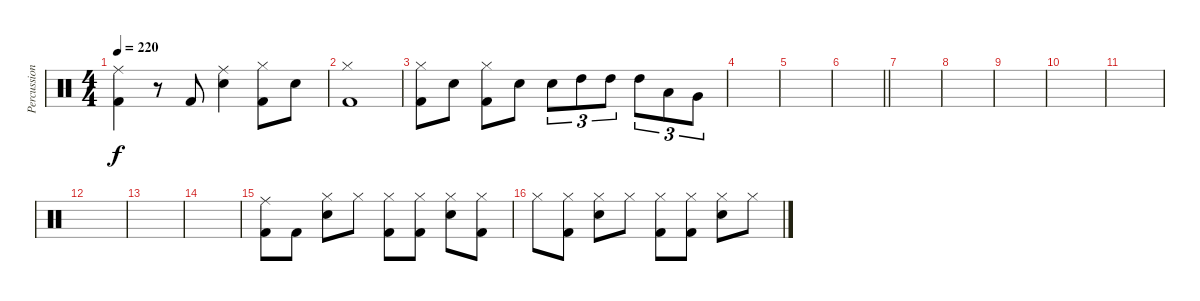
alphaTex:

\track ("Percussion" "Percussion") {instrument percussion}
\staff {score}
\articulation defaults
\ts (4 4)
\tempo 220
\clef neutral
\ks c
("Ride (middle)" "Kick (hit) 2").4{dy f} r.8 "Kick (hit) 2".8 ("Ride (middle)" "Electric Snare (hit)").4 ("Hi-Hat (closed)" "Kick (hit) 2").8 "Electric Snare (hit)".8 |
("Hi-Hat (closed)" "Kick (hit) 2").1 |
("Hi-Hat (closed)" "Kick (hit) 2").8 "Electric Snare (hit)".8 ("Hi-Hat (closed)" "Kick (hit) 2").8 "Electric Snare (hit)".8 "Electric Snare (hit)".8{tu (3 2)} "High Tom (hit)".8{tu (3 2)} "High Tom (hit)".8{tu (3 2)} "High Tom (hit)".8{tu (3 2)} "Low Tom (hit)".8{tu (3 2)} "Very Low Tom (hit)".8{tu (3 2)} |
|
|
\barLineRight lightlight
|
|
|
|
|
|
|
|
|
("Ride (middle)" "Kick (hit) 2").8 "Kick (hit) 2".8 ("Hi-Hat (closed)" "Electric Snare (hit)").8 "Hi-Hat (closed)".8 ("Hi-Hat (closed)" "Kick (hit) 2").8 ("Hi-Hat (closed)" "Kick (hit) 2").8 ("Hi-Hat (closed)" "Electric Snare (hit)").8 ("Hi-Hat (closed)" "Kick (hit) 2").8 |
"Hi-Hat (closed)".8 ("Hi-Hat (closed)" "Kick (hit) 2").8 ("Hi-Hat (closed)" "Electric Snare (hit)").8 "Hi-Hat (closed)".8 ("Hi-Hat (closed)" "Kick (hit) 2").8 ("Hi-Hat (closed)" "Kick (hit) 2").8 ("Hi-Hat (closed)" "Electric Snare (hit)").8 "Hi-Hat (closed)".8
